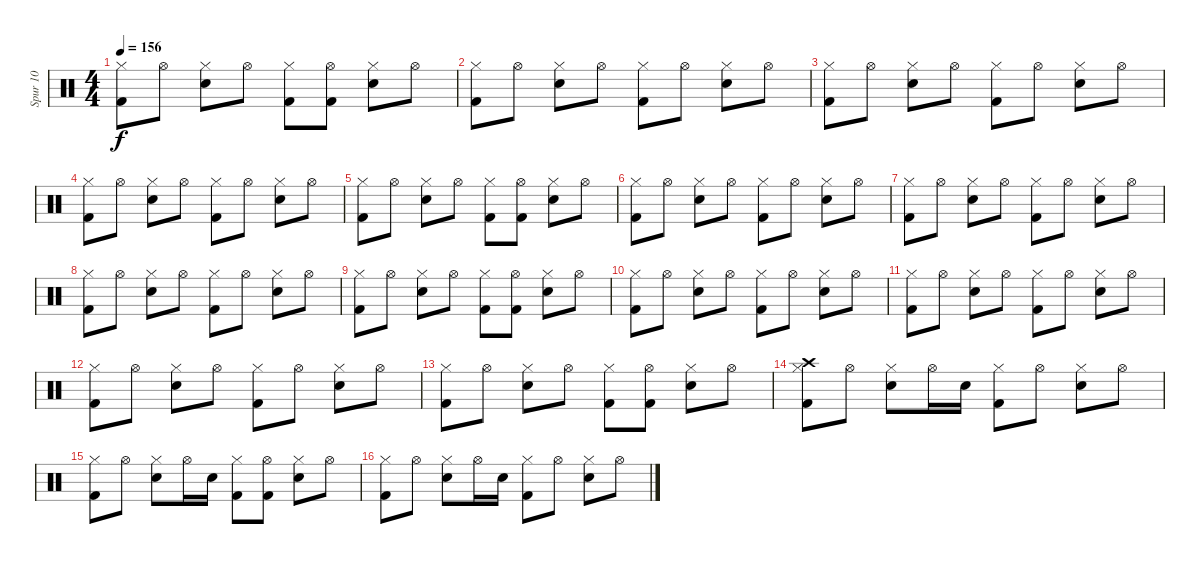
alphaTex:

\track ("Spur 10" "Spur 10") {instrument percussion}
\staff {score}
\articulation defaults
\ts (4 4)
\tempo 156
\clef neutral
\ks c
("Hi-Hat (closed)" "Kick (hit) 2").8{dy f} "Hi-Hat (open)".8 ("Hi-Hat (closed)" "Electric Snare (hit)").8 "Hi-Hat (open)".8 ("Hi-Hat (closed)" "Kick (hit) 2").8 ("Hi-Hat (open)" "Kick (hit) 2").8 ("Hi-Hat (closed)" "Electric Snare (hit)").8 "Hi-Hat (open)".8 |
("Hi-Hat (closed)" "Kick (hit) 2").8 "Hi-Hat (open)".8 ("Hi-Hat (closed)" "Electric Snare (hit)").8 "Hi-Hat (open)".8 ("Hi-Hat (closed)" "Kick (hit) 2").8 "Hi-Hat (open)".8 ("Hi-Hat (closed)" "Electric Snare (hit)").8 "Hi-Hat (open)".8 |
("Hi-Hat (closed)" "Kick (hit) 2").8 "Hi-Hat (open)".8 ("Hi-Hat (closed)" "Electric Snare (hit)").8 "Hi-Hat (open)".8 ("Hi-Hat (closed)" "Kick (hit) 2").8 "Hi-Hat (open)".8 ("Hi-Hat (closed)" "Electric Snare (hit)").8 "Hi-Hat (open)".8 |
("Hi-Hat (closed)" "Kick (hit) 2").8 "Hi-Hat (open)".8 ("Hi-Hat (closed)" "Electric Snare (hit)").8 "Hi-Hat (open)".8 ("Hi-Hat (closed)" "Kick (hit) 2").8 "Hi-Hat (open)".8 ("Hi-Hat (closed)" "Electric Snare (hit)").8 "Hi-Hat (open)".8 |
("Hi-Hat (closed)" "Kick (hit) 2").8 "Hi-Hat (open)".8 ("Hi-Hat (closed)" "Electric Snare (hit)").8 "Hi-Hat (open)".8 ("Hi-Hat (closed)" "Kick (hit) 2").8 ("Hi-Hat (open)" "Kick (hit) 2").8 ("Hi-Hat (closed)" "Electric Snare (hit)").8 "Hi-Hat (open)".8 |
("Hi-Hat (closed)" "Kick (hit) 2").8 "Hi-Hat (open)".8 ("Hi-Hat (closed)" "Electric Snare (hit)").8 "Hi-Hat (open)".8 ("Hi-Hat (closed)" "Kick (hit) 2").8 "Hi-Hat (open)".8 ("Hi-Hat (closed)" "Electric Snare (hit)").8 "Hi-Hat (open)".8 |
("Hi-Hat (closed)" "Kick (hit) 2").8 "Hi-Hat (open)".8 ("Hi-Hat (closed)" "Electric Snare (hit)").8 "Hi-Hat (open)".8 ("Hi-Hat (closed)" "Kick (hit) 2").8 "Hi-Hat (open)".8 ("Hi-Hat (closed)" "Electric Snare (hit)").8 "Hi-Hat (open)".8 |
("Hi-Hat (closed)" "Kick (hit) 2").8 "Hi-Hat (open)".8 ("Hi-Hat (closed)" "Electric Snare (hit)").8 "Hi-Hat (open)".8 ("Hi-Hat (closed)" "Kick (hit) 2").8 "Hi-Hat (open)".8 ("Hi-Hat (closed)" "Electric Snare (hit)").8 "Hi-Hat (open)".8 |
("Hi-Hat (closed)" "Kick (hit) 2").8 "Hi-Hat (open)".8 ("Hi-Hat (closed)" "Electric Snare (hit)").8 "Hi-Hat (open)".8 ("Hi-Hat (closed)" "Kick (hit) 2").8 ("Hi-Hat (open)" "Kick (hit) 2").8 ("Hi-Hat (closed)" "Electric Snare (hit)").8 "Hi-Hat (open)".8 |
("Hi-Hat (closed)" "Kick (hit) 2").8 "Hi-Hat (open)".8 ("Hi-Hat (closed)" "Electric Snare (hit)").8 "Hi-Hat (open)".8 ("Hi-Hat (closed)" "Kick (hit) 2").8 "Hi-Hat (open)".8 ("Hi-Hat (closed)" "Electric Snare (hit)").8 "Hi-Hat (open)".8 |
("Hi-Hat (closed)" "Kick (hit) 2").8 "Hi-Hat (open)".8 ("Hi-Hat (closed)" "Electric Snare (hit)").8 "Hi-Hat (open)".8 ("Hi-Hat (closed)" "Kick (hit) 2").8 "Hi-Hat (open)".8 ("Hi-Hat (closed)" "Electric Snare (hit)").8 "Hi-Hat (open)".8 |
("Hi-Hat (closed)" "Kick (hit) 2").8 "Hi-Hat (open)".8 ("Hi-Hat (closed)" "Electric Snare (hit)").8 "Hi-Hat (open)".8 ("Hi-Hat (closed)" "Kick (hit) 2").8 "Hi-Hat (open)".8 ("Hi-Hat (closed)" "Electric Snare (hit)").8 "Hi-Hat (open)".8 |
("Hi-Hat (closed)" "Kick (hit) 2").8 "Hi-Hat (open)".8 ("Hi-Hat (closed)" "Electric Snare (hit)").8 "Hi-Hat (open)".8 ("Hi-Hat (closed)" "Kick (hit) 2").8 ("Hi-Hat (open)" "Kick (hit) 2").8 ("Hi-Hat (closed)" "Electric Snare (hit)").8 "Hi-Hat (open)".8 |
("Crash high (hit)" "Hi-Hat (closed)" "Kick (hit) 2").8 "Hi-Hat (open)".8 ("Hi-Hat (closed)" "Electric Snare (hit)").8 "Hi-Hat (open)".16 "Electric Snare (hit)".16 ("Hi-Hat (closed)" "Kick (hit) 2").8 "Hi-Hat (open)".8 ("Hi-Hat (closed)" "Electric Snare (hit)").8 "Hi-Hat (open)".8 |
("Hi-Hat (closed)" "Kick (hit) 2").8 "Hi-Hat (open)".8 ("Hi-Hat (closed)" "Electric Snare (hit)").8 "Hi-Hat (open)".16 "Electric Snare (hit)".16 ("Hi-Hat (closed)" "Kick (hit) 2").8 ("Hi-Hat (open)" "Kick (hit) 2").8 ("Hi-Hat (closed)" "Electric Snare (hit)").8 "Hi-Hat (open)".8 |
("Hi-Hat (closed)" "Kick (hit) 2").8 "Hi-Hat (open)".8 ("Hi-Hat (closed)" "Electric Snare (hit)").8 "Hi-Hat (open)".16 "Electric Snare (hit)".16 ("Hi-Hat (closed)" "Kick (hit) 2").8 "Hi-Hat (open)".8 ("Hi-Hat (closed)" "Electric Snare (hit)").8 "Hi-Hat (open)".8
